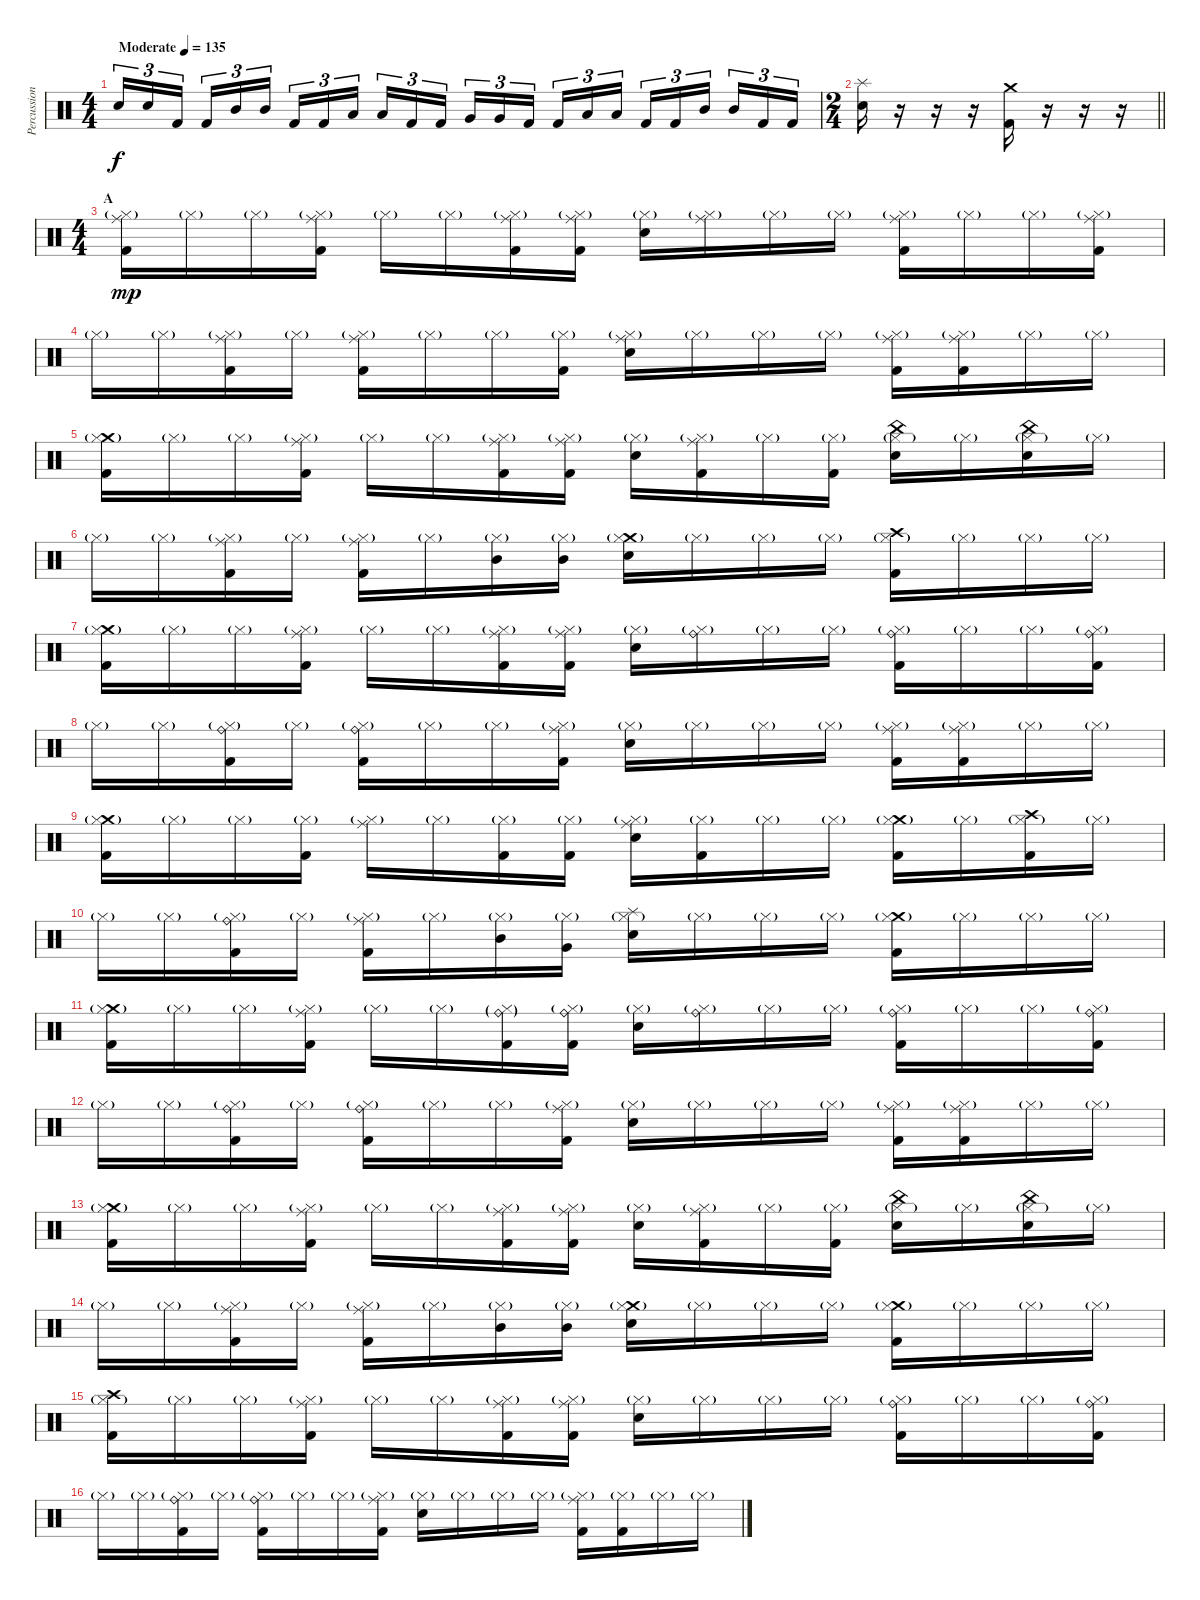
\track ("Percussion" "Percussion") {instrument percussion}
\staff {score}
\articulation defaults
\ts (4 4)
\tempo (135 "Moderate")
\clef neutral
\ks c "Snare (hit) 2".16{tu (3 2) dy f} "Snare (hit) 2".16{tu (3 2)} "Kick (hit) 2".16{tu (3 2) beam splitsecondary} "Kick (hit) 2".16{tu (3 2)} "Mid Tom (hit)".16{tu (3 2)} "Mid Tom (hit)".16{tu (3 2)} "Kick (hit) 2".16{tu (3 2)} "Kick (hit) 2".16{tu (3 2)} "Low Tom (hit)".16{tu (3 2) beam splitsecondary} "Low Tom (hit)".16{tu (3 2)} "Kick (hit) 2".16{tu (3 2)} "Kick (hit) 2".16{tu (3 2)} "Very Low Tom (hit)".16{tu (3 2)} "Very Low Tom (hit)".16{tu (3 2)} "Kick (hit) 2".16{tu (3 2) beam splitsecondary} "Kick (hit) 2".16{tu (3 2)} "Low Tom (hit)".16{tu (3 2)} "Low Tom (hit)".16{tu (3 2)} "Kick (hit) 2".16{tu (3 2)} "Kick (hit) 2".16{tu (3 2)} "Mid Tom (hit)".16{tu (3 2) beam splitsecondary} "Mid Tom (hit)".16{tu (3 2)} "Kick (hit) 2".16{tu (3 2)} "Kick (hit) 2".16{tu (3 2)}
|
\ts (2 4)
\barLineRight lightlight
("Splash (hit)" "Snare (hit) 2").16 r.16 r.16 r.16 ("Crash medium (hit)" "Kick (hit) 2").16 r.16 r.16 r.16 |
\ts (4 4)
\section ("" "A")
("Ride (middle)" "Hi-Hat (closed)"{g} "Kick (hit) 2").16{dy mp} "Hi-Hat (closed)"{g}.16 "Hi-Hat (closed)"{g}.16 ("Ride (middle)" "Hi-Hat (closed)"{g} "Kick (hit) 2").16 "Hi-Hat (closed)"{g}.16 "Hi-Hat (closed)"{g}.16 ("Ride (middle)" "Hi-Hat (closed)"{g} "Kick (hit) 2").16 ("Ride (middle)" "Hi-Hat (closed)"{g} "Kick (hit) 2").16 ("Hi-Hat (closed)"{g} "Snare (hit) 2").16 ("Ride (middle)" "Hi-Hat (closed)"{g}).16 "Hi-Hat (closed)"{g}.16 "Hi-Hat (closed)"{g}.16 ("Ride (middle)" "Hi-Hat (closed)"{g} "Kick (hit) 2").16 "Hi-Hat (closed)"{g}.16 "Hi-Hat (closed)"{g}.16 ("Ride (middle)" "Hi-Hat (closed)"{g} "Kick (hit) 2").16 |
"Hi-Hat (closed)"{g}.16 "Hi-Hat (closed)"{g}.16 ("Ride (middle)" "Hi-Hat (closed)"{g} "Kick (hit) 2").16 "Hi-Hat (closed)"{g}.16 ("Ride (middle)" "Hi-Hat (closed)"{g} "Kick (hit) 2").16 "Hi-Hat (closed)"{g}.16 "Hi-Hat (closed)"{g}.16 ("Hi-Hat (closed)"{g} "Kick (hit) 2").16 ("Ride (middle)" "Hi-Hat (closed)"{g} "Snare (hit) 2").16 "Hi-Hat (closed)"{g}.16 "Hi-Hat (closed)"{g}.16 "Hi-Hat (closed)"{g}.16 ("Ride (middle)" "Hi-Hat (closed)"{g} "Kick (hit) 2").16 ("Ride (middle)" "Hi-Hat (closed)"{g} "Kick (hit) 2").16 "Hi-Hat (closed)"{g}.16 "Hi-Hat (closed)"{g}.16 |
("Crash medium (hit)" "Hi-Hat (closed)"{g} "Kick (hit) 2").16 "Hi-Hat (closed)"{g}.16 "Hi-Hat (closed)"{g}.16 ("Ride (middle)" "Hi-Hat (closed)"{g} "Kick (hit) 2").16 "Hi-Hat (closed)"{g}.16 "Hi-Hat (closed)"{g}.16 ("Ride (middle)" "Hi-Hat (closed)"{g} "Kick (hit) 2").16 ("Ride (middle)" "Hi-Hat (closed)"{g} "Kick (hit) 2").16 ("Hi-Hat (closed)"{g} "Snare (hit) 2").16 ("Ride (middle)" "Hi-Hat (closed)"{g} "Kick (hit) 2").16 "Hi-Hat (closed)"{g}.16 ("Hi-Hat (closed)"{g} "Kick (hit) 2").16 ("China (hit)" "Hi-Hat (closed)"{g} "Snare (hit) 2").16 "Hi-Hat (closed)"{g}.16 ("China (hit)" "Hi-Hat (closed)"{g} "Snare (hit) 2").16 "Hi-Hat (closed)"{g}.16 |
"Hi-Hat (closed)"{g}.16 "Hi-Hat (closed)"{g}.16 ("Ride (middle)" "Hi-Hat (closed)"{g} "Kick (hit) 2").16 "Hi-Hat (closed)"{g}.16 ("Ride (middle)" "Hi-Hat (closed)"{g} "Kick (hit) 2").16 "Hi-Hat (closed)"{g}.16 ("Hi-Hat (closed)"{g} "Mid Tom (hit)").16 ("Hi-Hat (closed)"{g} "Mid Tom (hit)").16 ("Crash medium (hit)" "Hi-Hat (closed)"{g} "Snare (hit) 2").16 "Hi-Hat (closed)"{g}.16 "Hi-Hat (closed)"{g}.16 "Hi-Hat (closed)"{g}.16 ("Crash high (hit)" "Hi-Hat (closed)"{g} "Kick (hit) 2").16 "Hi-Hat (closed)"{g}.16 "Hi-Hat (closed)"{g}.16 "Hi-Hat (closed)"{g}.16 |
("Crash medium (hit)" "Hi-Hat (closed)"{g} "Kick (hit) 2").16 "Hi-Hat (closed)"{g}.16 "Hi-Hat (closed)"{g}.16 ("Ride (middle)" "Hi-Hat (closed)"{g} "Kick (hit) 2").16 "Hi-Hat (closed)"{g}.16 "Hi-Hat (closed)"{g}.16 ("Ride (middle)" "Hi-Hat (closed)"{g} "Kick (hit) 2").16 ("Ride (middle)" "Hi-Hat (closed)"{g} "Kick (hit) 2").16 ("Hi-Hat (closed)"{g} "Snare (hit) 2").16 ("Ride (bell)" "Hi-Hat (closed)"{g}).16 "Hi-Hat (closed)"{g}.16 "Hi-Hat (closed)"{g}.16 ("Ride (bell)" "Hi-Hat (closed)"{g} "Kick (hit) 2").16 "Hi-Hat (closed)"{g}.16 "Hi-Hat (closed)"{g}.16 ("Ride (bell)" "Hi-Hat (closed)"{g} "Kick (hit) 2").16 |
"Hi-Hat (closed)"{g}.16 "Hi-Hat (closed)"{g}.16 ("Ride (bell)" "Hi-Hat (closed)"{g} "Kick (hit) 2").16 "Hi-Hat (closed)"{g}.16 ("Ride (bell)" "Hi-Hat (closed)"{g} "Kick (hit) 2").16 "Hi-Hat (closed)"{g}.16 "Hi-Hat (closed)"{g}.16 ("Ride (middle)" "Hi-Hat (closed)"{g} "Kick (hit) 2").16 ("Hi-Hat (closed)"{g} "Snare (hit) 2").16 "Hi-Hat (closed)"{g}.16 "Hi-Hat (closed)"{g}.16 "Hi-Hat (closed)"{g}.16 ("Ride (middle)" "Hi-Hat (closed)"{g} "Kick (hit) 2").16 ("Ride (middle)" "Hi-Hat (closed)"{g} "Kick (hit) 2").16 "Hi-Hat (closed)"{g}.16 "Hi-Hat (closed)"{g}.16 |
("Crash medium (hit)" "Hi-Hat (closed)"{g} "Kick (hit) 2").16 "Hi-Hat (closed)"{g}.16 "Hi-Hat (closed)"{g}.16 ("Hi-Hat (closed)"{g} "Kick (hit) 2").16 ("Ride (middle)" "Hi-Hat (closed)"{g}).16 "Hi-Hat (closed)"{g}.16 ("Hi-Hat (closed)"{g} "Kick (hit) 2").16 ("Hi-Hat (closed)"{g} "Kick (hit) 2").16 ("Ride (middle)" "Hi-Hat (closed)"{g} "Snare (hit) 2").16 ("Hi-Hat (closed)"{g} "Kick (hit) 2").16 "Hi-Hat (closed)"{g}.16 "Hi-Hat (closed)"{g}.16 ("Crash medium (hit)" "Hi-Hat (closed)"{g} "Kick (hit) 2").16 "Hi-Hat (closed)"{g}.16 ("Crash high (hit)" "Hi-Hat (closed)"{g} "Kick (hit) 2").16 "Hi-Hat (closed)"{g}.16 |
"Hi-Hat (closed)"{g}.16 "Hi-Hat (closed)"{g}.16 ("Ride (bell)" "Hi-Hat (closed)"{g} "Kick (hit) 2").16 "Hi-Hat (closed)"{g}.16 ("Ride (middle)" "Hi-Hat (closed)"{g} "Kick (hit) 2").16 "Hi-Hat (closed)"{g}.16 ("Hi-Hat (closed)"{g} "Mid Tom (hit)").16 ("Hi-Hat (closed)"{g} "Very Low Tom (hit)").16 ("Splash (hit)" "Hi-Hat (closed)"{g} "Snare (hit) 2").16 "Hi-Hat (closed)"{g}.16 "Hi-Hat (closed)"{g}.16 "Hi-Hat (closed)"{g}.16 ("Crash medium (hit)" "Hi-Hat (closed)"{g} "Kick (hit) 2").16 "Hi-Hat (closed)"{g}.16 "Hi-Hat (closed)"{g}.16 "Hi-Hat (closed)"{g}.16 |
("Crash medium (hit)" "Hi-Hat (closed)"{g} "Kick (hit) 2").16 "Hi-Hat (closed)"{g}.16 "Hi-Hat (closed)"{g}.16 ("Ride (middle)" "Hi-Hat (closed)"{g} "Kick (hit) 2").16 "Hi-Hat (closed)"{g}.16 "Hi-Hat (closed)"{g}.16 ("Ride (bell)"{g} "Hi-Hat (closed)"{g} "Kick (hit) 2").16 ("Ride (bell)" "Hi-Hat (closed)"{g} "Kick (hit) 2").16 ("Hi-Hat (closed)"{g} "Snare (hit) 2").16 ("Ride (bell)" "Hi-Hat (closed)"{g}).16 "Hi-Hat (closed)"{g}.16 "Hi-Hat (closed)"{g}.16 ("Ride (bell)" "Hi-Hat (closed)"{g} "Kick (hit) 2").16 "Hi-Hat (closed)"{g}.16 "Hi-Hat (closed)"{g}.16 ("Ride (bell)" "Hi-Hat (closed)"{g} "Kick (hit) 2").16 |
"Hi-Hat (closed)"{g}.16 "Hi-Hat (closed)"{g}.16 ("Ride (bell)" "Hi-Hat (closed)"{g} "Kick (hit) 2").16 "Hi-Hat (closed)"{g}.16 ("Ride (bell)" "Hi-Hat (closed)"{g} "Kick (hit) 2").16 "Hi-Hat (closed)"{g}.16 "Hi-Hat (closed)"{g}.16 ("Ride (middle)" "Hi-Hat (closed)"{g} "Kick (hit) 2").16 ("Hi-Hat (closed)"{g} "Snare (hit) 2").16 "Hi-Hat (closed)"{g}.16 "Hi-Hat (closed)"{g}.16 "Hi-Hat (closed)"{g}.16 ("Ride (middle)" "Hi-Hat (closed)"{g} "Kick (hit) 2").16 ("Ride (middle)" "Hi-Hat (closed)"{g} "Kick (hit) 2").16 "Hi-Hat (closed)"{g}.16 "Hi-Hat (closed)"{g}.16 |
("Crash medium (hit)" "Hi-Hat (closed)"{g} "Kick (hit) 2").16 "Hi-Hat (closed)"{g}.16 "Hi-Hat (closed)"{g}.16 ("Ride (middle)" "Hi-Hat (closed)"{g} "Kick (hit) 2").16 "Hi-Hat (closed)"{g}.16 "Hi-Hat (closed)"{g}.16 ("Ride (middle)" "Hi-Hat (closed)"{g} "Kick (hit) 2").16 ("Ride (middle)" "Hi-Hat (closed)"{g} "Kick (hit) 2").16 ("Hi-Hat (closed)"{g} "Snare (hit) 2").16 ("Ride (middle)" "Hi-Hat (closed)"{g} "Kick (hit) 2").16 "Hi-Hat (closed)"{g}.16 ("Hi-Hat (closed)"{g} "Kick (hit) 2").16 ("China (hit)" "Hi-Hat (closed)"{g} "Snare (hit) 2").16 "Hi-Hat (closed)"{g}.16 ("China (hit)" "Hi-Hat (closed)"{g} "Snare (hit) 2").16 "Hi-Hat (closed)"{g}.16 |
"Hi-Hat (closed)"{g}.16 "Hi-Hat (closed)"{g}.16 ("Ride (middle)" "Hi-Hat (closed)"{g} "Kick (hit) 2").16 "Hi-Hat (closed)"{g}.16 ("Ride (middle)" "Hi-Hat (closed)"{g} "Kick (hit) 2").16 "Hi-Hat (closed)"{g}.16 ("Hi-Hat (closed)"{g} "Mid Tom (hit)").16 ("Hi-Hat (closed)"{g} "Mid Tom (hit)").16 ("Crash medium (hit)" "Hi-Hat (closed)"{g} "Snare (hit) 2").16 "Hi-Hat (closed)"{g}.16 "Hi-Hat (closed)"{g}.16 "Hi-Hat (closed)"{g}.16 ("Crash medium (hit)" "Hi-Hat (closed)"{g} "Kick (hit) 2").16 "Hi-Hat (closed)"{g}.16 "Hi-Hat (closed)"{g}.16 "Hi-Hat (closed)"{g}.16 |
("Crash high (hit)" "Hi-Hat (closed)"{g} "Kick (hit) 2").16 "Hi-Hat (closed)"{g}.16 "Hi-Hat (closed)"{g}.16 ("Ride (middle)" "Hi-Hat (closed)"{g} "Kick (hit) 2").16 "Hi-Hat (closed)"{g}.16 "Hi-Hat (closed)"{g}.16 ("Ride (middle)" "Hi-Hat (closed)"{g} "Kick (hit) 2").16 ("Ride (middle)" "Hi-Hat (closed)"{g} "Kick (hit) 2").16 ("Hi-Hat (closed)"{g} "Snare (hit) 2").16 "Hi-Hat (closed)"{g}.16 "Hi-Hat (closed)"{g}.16 "Hi-Hat (closed)"{g}.16 ("Ride (bell)" "Hi-Hat (closed)"{g} "Kick (hit) 2").16 "Hi-Hat (closed)"{g}.16 "Hi-Hat (closed)"{g}.16 ("Ride (bell)" "Hi-Hat (closed)"{g} "Kick (hit) 2").16 |
"Hi-Hat (closed)"{g}.16 "Hi-Hat (closed)"{g}.16 ("Ride (bell)" "Hi-Hat (closed)"{g} "Kick (hit) 2").16 "Hi-Hat (closed)"{g}.16 ("Ride (bell)" "Hi-Hat (closed)"{g} "Kick (hit) 2").16 "Hi-Hat (closed)"{g}.16 "Hi-Hat (closed)"{g}.16 ("Ride (middle)" "Hi-Hat (closed)"{g} "Kick (hit) 2").16 ("Hi-Hat (closed)"{g} "Snare (hit) 2").16 "Hi-Hat (closed)"{g}.16 "Hi-Hat (closed)"{g}.16 "Hi-Hat (closed)"{g}.16 ("Ride (middle)" "Hi-Hat (closed)"{g} "Kick (hit) 2").16 ("Hi-Hat (closed)"{g} "Kick (hit) 2").16 "Hi-Hat (closed)"{g}.16 "Hi-Hat (closed)"{g}.16
